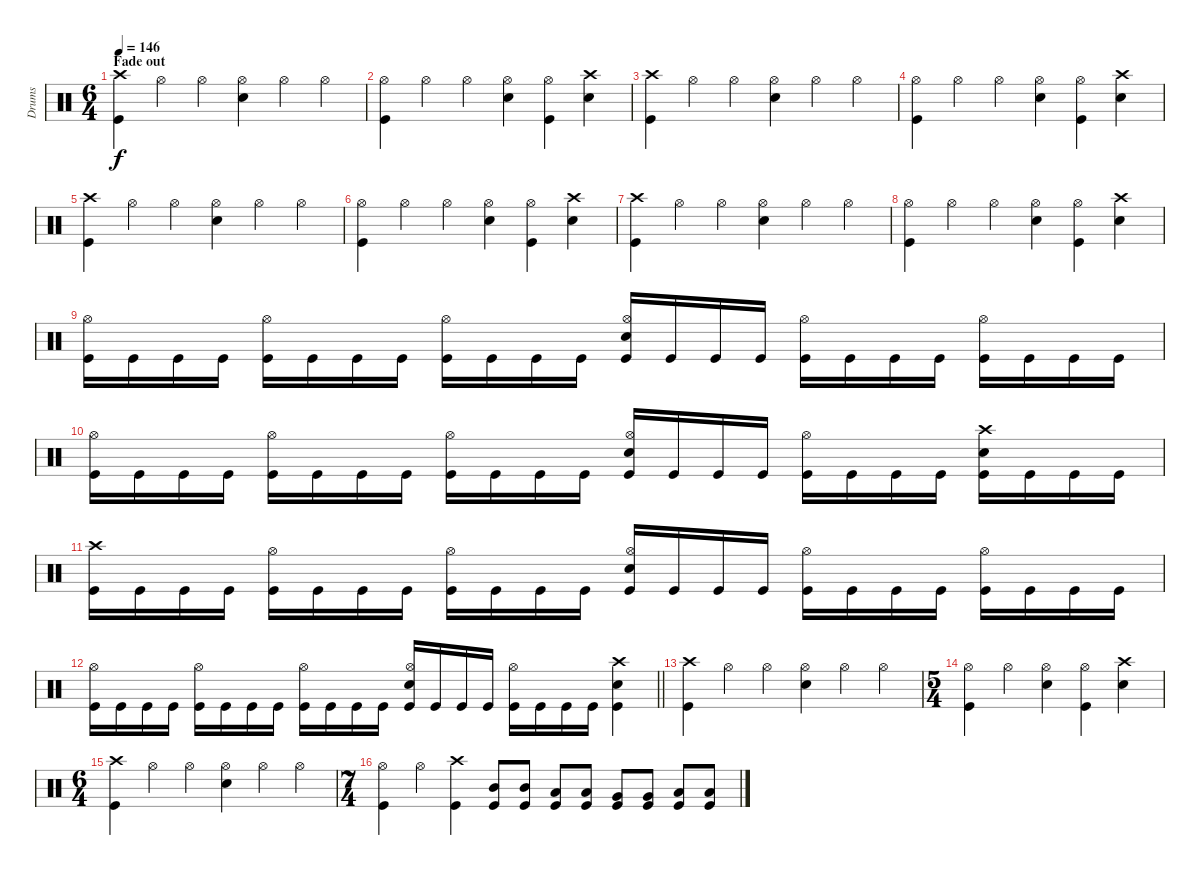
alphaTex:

\track ("Drums" "Drums") {instrument percussion}
\staff {score}
\articulation defaults
\ts (6 4)
\section ("" "Fade out")
\tempo 146
\clef neutral
\ks c
("Crash high (hit)" "Kick (hit)").4{dy f} "Hi-Hat (open)".4 "Hi-Hat (open)".4 ("Hi-Hat (open)" "Snare (hit) 2").4 "Hi-Hat (open)".4 "Hi-Hat (open)".4 |
("Hi-Hat (open)" "Kick (hit)").4 "Hi-Hat (open)".4 "Hi-Hat (open)".4 ("Hi-Hat (open)" "Snare (hit) 2").4 ("Hi-Hat (open)" "Kick (hit)").4 ("Crash high (hit)" "Snare (hit) 2").4 |
("Crash high (hit)" "Kick (hit)").4 "Hi-Hat (open)".4 "Hi-Hat (open)".4 ("Hi-Hat (open)" "Snare (hit) 2").4 "Hi-Hat (open)".4 "Hi-Hat (open)".4 |
("Hi-Hat (open)" "Kick (hit)").4 "Hi-Hat (open)".4 "Hi-Hat (open)".4 ("Hi-Hat (open)" "Snare (hit) 2").4 ("Hi-Hat (open)" "Kick (hit)").4 ("Crash high (hit)" "Snare (hit) 2").4 |
("Crash high (hit)" "Kick (hit)").4 "Hi-Hat (open)".4 "Hi-Hat (open)".4 ("Hi-Hat (open)" "Snare (hit) 2").4 "Hi-Hat (open)".4 "Hi-Hat (open)".4 |
("Hi-Hat (open)" "Kick (hit)").4 "Hi-Hat (open)".4 "Hi-Hat (open)".4 ("Hi-Hat (open)" "Snare (hit) 2").4 ("Hi-Hat (open)" "Kick (hit)").4 ("Crash high (hit)" "Snare (hit) 2").4 |
("Crash high (hit)" "Kick (hit)").4 "Hi-Hat (open)".4 "Hi-Hat (open)".4 ("Hi-Hat (open)" "Snare (hit) 2").4 "Hi-Hat (open)".4 "Hi-Hat (open)".4 |
("Hi-Hat (open)" "Kick (hit)").4 "Hi-Hat (open)".4 "Hi-Hat (open)".4 ("Hi-Hat (open)" "Snare (hit) 2").4 ("Hi-Hat (open)" "Kick (hit)").4 ("Crash high (hit)" "Snare (hit) 2").4 |
("Hi-Hat (open)" "Kick (hit)").16 "Kick (hit)".16 "Kick (hit)".16 "Kick (hit)".16 ("Hi-Hat (open)" "Kick (hit)").16 "Kick (hit)".16 "Kick (hit)".16 "Kick (hit)".16 ("Hi-Hat (open)" "Kick (hit)").16 "Kick (hit)".16 "Kick (hit)".16 "Kick (hit)".16 ("Snare (hit) 2" "Hi-Hat (open)" "Kick (hit)").16 "Kick (hit)".16 "Kick (hit)".16 "Kick (hit)".16 ("Hi-Hat (open)" "Kick (hit)").16 "Kick (hit)".16 "Kick (hit)".16 "Kick (hit)".16 ("Hi-Hat (open)" "Kick (hit)").16 "Kick (hit)".16 "Kick (hit)".16 "Kick (hit)".16 |
("Hi-Hat (open)" "Kick (hit)").16 "Kick (hit)".16 "Kick (hit)".16 "Kick (hit)".16 ("Hi-Hat (open)" "Kick (hit)").16 "Kick (hit)".16 "Kick (hit)".16 "Kick (hit)".16 ("Hi-Hat (open)" "Kick (hit)").16 "Kick (hit)".16 "Kick (hit)".16 "Kick (hit)".16 ("Snare (hit) 2" "Hi-Hat (open)" "Kick (hit)").16 "Kick (hit)".16 "Kick (hit)".16 "Kick (hit)".16 ("Hi-Hat (open)" "Kick (hit)").16 "Kick (hit)".16 "Kick (hit)".16 "Kick (hit)".16 ("Crash high (hit)" "Snare (hit) 2" "Kick (hit)").16 "Kick (hit)".16 "Kick (hit)".16 "Kick (hit)".16 |
("Crash high (hit)" "Kick (hit)").16 "Kick (hit)".16 "Kick (hit)".16 "Kick (hit)".16 ("Hi-Hat (open)" "Kick (hit)").16 "Kick (hit)".16 "Kick (hit)".16 "Kick (hit)".16 ("Hi-Hat (open)" "Kick (hit)").16 "Kick (hit)".16 "Kick (hit)".16 "Kick (hit)".16 ("Snare (hit) 2" "Hi-Hat (open)" "Kick (hit)").16 "Kick (hit)".16 "Kick (hit)".16 "Kick (hit)".16 ("Hi-Hat (open)" "Kick (hit)").16 "Kick (hit)".16 "Kick (hit)".16 "Kick (hit)".16 ("Hi-Hat (open)" "Kick (hit)").16 "Kick (hit)".16 "Kick (hit)".16 "Kick (hit)".16 |
\barLineRight lightlight
("Hi-Hat (open)" "Kick (hit)").16 "Kick (hit)".16 "Kick (hit)".16 "Kick (hit)".16 ("Hi-Hat (open)" "Kick (hit)").16 "Kick (hit)".16 "Kick (hit)".16 "Kick (hit)".16 ("Hi-Hat (open)" "Kick (hit)").16 "Kick (hit)".16 "Kick (hit)".16 "Kick (hit)".16 ("Snare (hit) 2" "Hi-Hat (open)" "Kick (hit)").16 "Kick (hit)".16 "Kick (hit)".16 "Kick (hit)".16 ("Hi-Hat (open)" "Kick (hit)").16 "Kick (hit)".16 "Kick (hit)".16 "Kick (hit)".16 ("Crash high (hit)" "Snare (hit) 2" "Kick (hit)").4 |
("Crash high (hit)" "Kick (hit)").4 "Hi-Hat (open)".4 "Hi-Hat (open)".4 ("Hi-Hat (open)" "Snare (hit) 2").4 "Hi-Hat (open)".4 "Hi-Hat (open)".4 |
\ts (5 4)
("Hi-Hat (open)" "Kick (hit)").4 "Hi-Hat (open)".4 ("Hi-Hat (open)" "Snare (hit) 2").4 ("Hi-Hat (open)" "Kick (hit)").4 ("Crash high (hit)" "Snare (hit) 2").4 |
\ts (6 4)
("Crash high (hit)" "Kick (hit)").4 "Hi-Hat (open)".4 "Hi-Hat (open)".4 ("Hi-Hat (open)" "Snare (hit) 2").4 "Hi-Hat (open)".4 "Hi-Hat (open)".4 |
\ts (7 4)
("Hi-Hat (open)" "Kick (hit)").4 "Hi-Hat (open)".4 ("Crash high (hit)" "Kick (hit)").4 ("Mid Tom (hit)" "Kick (hit)").8 ("Mid Tom (hit)" "Kick (hit)").8 ("Low Tom (hit)" "Kick (hit)").8 ("Low Tom (hit)" "Kick (hit)").8 ("Very Low Tom (hit)" "Kick (hit)").8 ("Very Low Tom (hit)" "Kick (hit)").8 ("Low Floor Tom (hit)" "Kick (hit)").8 ("Low Floor Tom (hit)" "Kick (hit)").8
